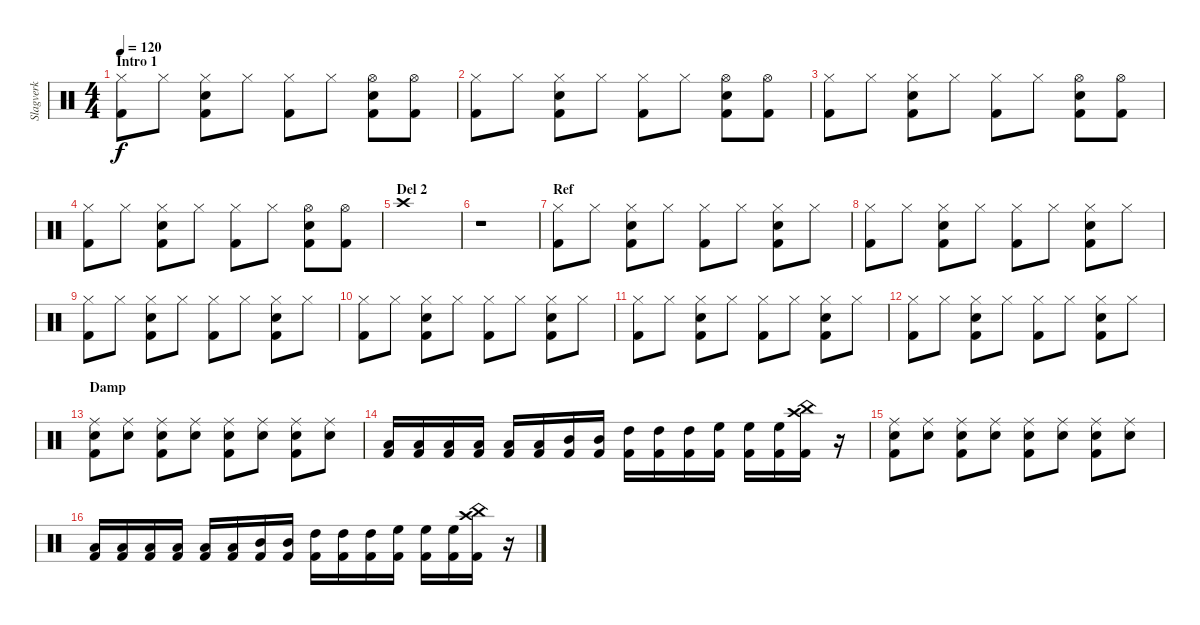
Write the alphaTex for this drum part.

\track ("Slagverk" "Slagverk") {instrument percussion}
\staff {score}
\articulation defaults
\ts (4 4)
\section ("" "Intro 1")
\tempo 120
\clef neutral
\ks c
("Kick (hit) 2" "Hi-Hat (closed)").8{dy f} "Hi-Hat (closed)".8 ("Kick (hit) 2" "Hi-Hat (closed)" "Snare (hit) 2").8 "Hi-Hat (closed)".8 ("Kick (hit) 2" "Hi-Hat (closed)").8 "Hi-Hat (closed)".8 ("Kick (hit) 2" "Hi-Hat (open)" "Snare (hit) 2").8 ("Kick (hit) 2" "Hi-Hat (open)").8 |
("Kick (hit) 2" "Hi-Hat (closed)").8 "Hi-Hat (closed)".8 ("Kick (hit) 2" "Hi-Hat (closed)" "Snare (hit) 2").8 "Hi-Hat (closed)".8 ("Kick (hit) 2" "Hi-Hat (closed)").8 "Hi-Hat (closed)".8 ("Kick (hit) 2" "Hi-Hat (open)" "Snare (hit) 2").8 ("Kick (hit) 2" "Hi-Hat (open)").8 |
("Kick (hit) 2" "Hi-Hat (closed)").8 "Hi-Hat (closed)".8 ("Kick (hit) 2" "Hi-Hat (closed)" "Snare (hit) 2").8 "Hi-Hat (closed)".8 ("Kick (hit) 2" "Hi-Hat (closed)").8 "Hi-Hat (closed)".8 ("Kick (hit) 2" "Hi-Hat (open)" "Snare (hit) 2").8 ("Kick (hit) 2" "Hi-Hat (open)").8 |
("Kick (hit) 2" "Hi-Hat (closed)").8 "Hi-Hat (closed)".8 ("Kick (hit) 2" "Hi-Hat (closed)" "Snare (hit) 2").8 "Hi-Hat (closed)".8 ("Kick (hit) 2" "Hi-Hat (closed)").8 "Hi-Hat (closed)".8 ("Kick (hit) 2" "Hi-Hat (open)" "Snare (hit) 2").8 ("Kick (hit) 2" "Hi-Hat (open)").8 |
\section ("" "Del 2")
"Crash high (hit)".1 |
r.1 |
\section ("" "Ref")
("Kick (hit) 2" "Hi-Hat (closed)").8 "Hi-Hat (closed)".8 ("Kick (hit) 2" "Hi-Hat (closed)" "Snare (hit) 2").8 "Hi-Hat (closed)".8 ("Kick (hit) 2" "Hi-Hat (closed)").8 "Hi-Hat (closed)".8 ("Kick (hit) 2" "Hi-Hat (closed)" "Snare (hit) 2").8 "Hi-Hat (closed)".8 |
("Kick (hit) 2" "Hi-Hat (closed)").8 "Hi-Hat (closed)".8 ("Kick (hit) 2" "Hi-Hat (closed)" "Snare (hit) 2").8 "Hi-Hat (closed)".8 ("Kick (hit) 2" "Hi-Hat (closed)").8 "Hi-Hat (closed)".8 ("Kick (hit) 2" "Hi-Hat (closed)" "Snare (hit) 2").8 "Hi-Hat (closed)".8 |
("Kick (hit) 2" "Hi-Hat (closed)").8 "Hi-Hat (closed)".8 ("Kick (hit) 2" "Hi-Hat (closed)" "Snare (hit) 2").8 "Hi-Hat (closed)".8 ("Kick (hit) 2" "Hi-Hat (closed)").8 "Hi-Hat (closed)".8 ("Kick (hit) 2" "Hi-Hat (closed)" "Snare (hit) 2").8 "Hi-Hat (closed)".8 |
("Kick (hit) 2" "Hi-Hat (closed)").8 "Hi-Hat (closed)".8 ("Kick (hit) 2" "Hi-Hat (closed)" "Snare (hit) 2").8 "Hi-Hat (closed)".8 ("Kick (hit) 2" "Hi-Hat (closed)").8 "Hi-Hat (closed)".8 ("Kick (hit) 2" "Hi-Hat (closed)" "Snare (hit) 2").8 "Hi-Hat (closed)".8 |
("Kick (hit) 2" "Hi-Hat (closed)").8 "Hi-Hat (closed)".8 ("Kick (hit) 2" "Hi-Hat (closed)" "Snare (hit) 2").8 "Hi-Hat (closed)".8 ("Kick (hit) 2" "Hi-Hat (closed)").8 "Hi-Hat (closed)".8 ("Kick (hit) 2" "Hi-Hat (closed)" "Snare (hit) 2").8 "Hi-Hat (closed)".8 |
("Kick (hit) 2" "Hi-Hat (closed)").8 "Hi-Hat (closed)".8 ("Kick (hit) 2" "Hi-Hat (closed)" "Snare (hit) 2").8 "Hi-Hat (closed)".8 ("Kick (hit) 2" "Hi-Hat (closed)").8 "Hi-Hat (closed)".8 ("Kick (hit) 2" "Hi-Hat (closed)" "Snare (hit) 2").8 "Hi-Hat (closed)".8 |
\section ("" "Damp")
("Kick (hit) 2" "Snare (hit) 2" "Ride (middle)").8 ("Snare (hit) 2" "Ride (middle)").8 ("Kick (hit) 2" "Snare (hit) 2" "Ride (middle)").8 ("Snare (hit) 2" "Ride (middle)").8 ("Kick (hit) 2" "Snare (hit) 2" "Ride (middle)").8 ("Snare (hit) 2" "Ride (middle)").8 ("Kick (hit) 2" "Snare (hit) 2" "Ride (middle)").8 ("Snare (hit) 2" "Ride (middle)").8 |
("Kick (hit) 2" "Low Floor Tom (hit)").16 ("Kick (hit) 2" "Low Floor Tom (hit)").16 ("Kick (hit) 2" "Low Floor Tom (hit)").16 ("Kick (hit) 2" "Low Tom (hit)").16 ("Kick (hit) 2" "Low Tom (hit)").16 ("Kick (hit) 2" "Low Tom (hit)").16 ("Kick (hit) 2" "Mid Tom (hit)").16 ("Kick (hit) 2" "Mid Tom (hit)").16 ("Kick (hit) 2" "High Tom (hit)").16 ("Kick (hit) 2" "High Tom (hit)").16 ("Kick (hit) 2" "High Tom (hit)").16 ("Kick (hit) 2" "High Floor Tom (hit)").16 ("Kick (hit) 2" "High Floor Tom (hit)").16 ("Kick (hit) 2" "High Floor Tom (hit)").16 ("Kick (hit) 2" "Crash high (hit)" "China (hit)").16 r.16 |
("Kick (hit) 2" "Snare (hit) 2" "Ride (middle)").8 ("Snare (hit) 2" "Ride (middle)").8 ("Kick (hit) 2" "Snare (hit) 2" "Ride (middle)").8 ("Snare (hit) 2" "Ride (middle)").8 ("Kick (hit) 2" "Snare (hit) 2" "Ride (middle)").8 ("Snare (hit) 2" "Ride (middle)").8 ("Kick (hit) 2" "Snare (hit) 2" "Ride (middle)").8 ("Snare (hit) 2" "Ride (middle)").8 |
("Kick (hit) 2" "Low Floor Tom (hit)").16 ("Kick (hit) 2" "Low Floor Tom (hit)").16 ("Kick (hit) 2" "Low Floor Tom (hit)").16 ("Kick (hit) 2" "Low Tom (hit)").16 ("Kick (hit) 2" "Low Tom (hit)").16 ("Kick (hit) 2" "Low Tom (hit)").16 ("Kick (hit) 2" "Mid Tom (hit)").16 ("Kick (hit) 2" "Mid Tom (hit)").16 ("Kick (hit) 2" "High Tom (hit)").16 ("Kick (hit) 2" "High Tom (hit)").16 ("Kick (hit) 2" "High Tom (hit)").16 ("Kick (hit) 2" "High Floor Tom (hit)").16 ("Kick (hit) 2" "High Floor Tom (hit)").16 ("Kick (hit) 2" "High Floor Tom (hit)").16 ("Kick (hit) 2" "Crash high (hit)" "China (hit)").16 r.16
